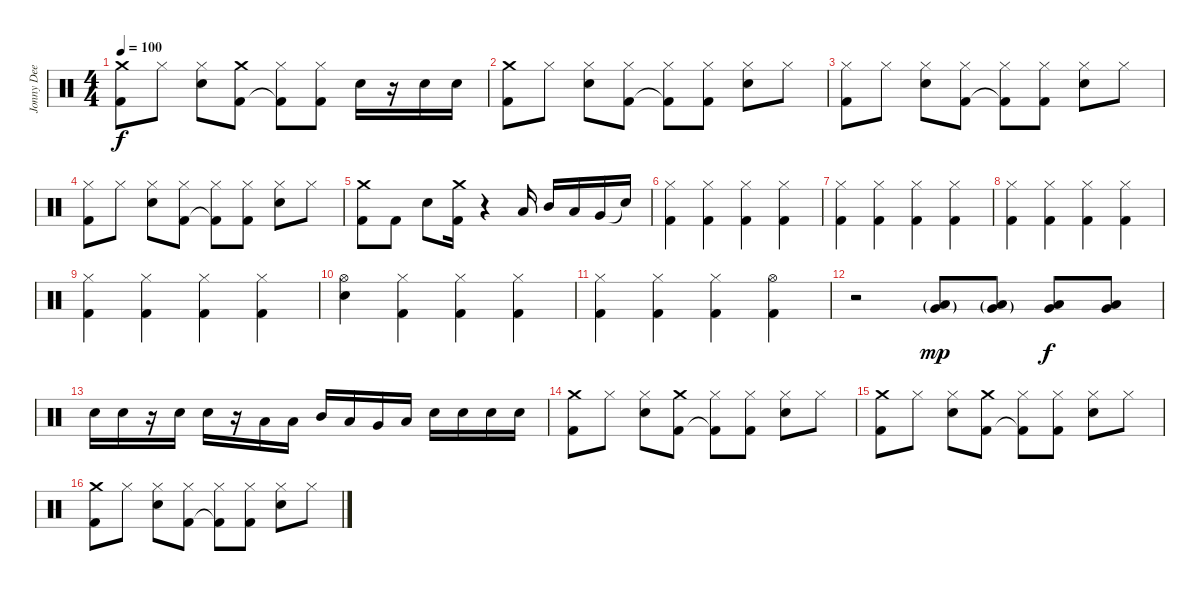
\track ("Jonny Dee" "Jonny Dee") {instrument percussion}
\staff {score}
\articulation defaults
\ts (4 4)
\tempo 100
\clef neutral
\ks c
("Crash medium (hit)" "Kick (hit) 2").8{dy f} "Hi-Hat (closed)".8 ("Hi-Hat (closed)" "Snare (hit) 2").8 ("Crash medium (hit)" "Kick (hit) 2").8 ("Hi-Hat (closed)" "Kick (hit) 2"{t}).8 ("Hi-Hat (closed)" "Kick (hit) 2").8 "Snare (hit) 2".16 r.16 "Snare (hit) 2".16 "Snare (hit) 2".16 |
("Crash medium (hit)" "Kick (hit) 2").8 "Hi-Hat (closed)".8 ("Hi-Hat (closed)" "Snare (hit) 2").8 ("Hi-Hat (closed)" "Kick (hit) 2").8 ("Hi-Hat (closed)" "Kick (hit) 2"{t}).8 ("Hi-Hat (closed)" "Kick (hit) 2").8 ("Hi-Hat (closed)" "Snare (hit) 2").8 "Hi-Hat (closed)".8 |
("Hi-Hat (closed)" "Kick (hit) 2").8 "Hi-Hat (closed)".8 ("Hi-Hat (closed)" "Snare (hit) 2").8 ("Hi-Hat (closed)" "Kick (hit) 2").8 ("Hi-Hat (closed)" "Kick (hit) 2"{t}).8 ("Hi-Hat (closed)" "Kick (hit) 2").8 ("Hi-Hat (closed)" "Snare (hit) 2").8 "Hi-Hat (closed)".8 |
("Hi-Hat (closed)" "Kick (hit) 2").8 "Hi-Hat (closed)".8 ("Hi-Hat (closed)" "Snare (hit) 2").8 ("Hi-Hat (closed)" "Kick (hit) 2").8 ("Hi-Hat (closed)" "Kick (hit) 2"{t}).8 ("Hi-Hat (closed)" "Kick (hit) 2").8 ("Hi-Hat (closed)" "Snare (hit) 2").8 "Hi-Hat (closed)".8 |
("Crash medium (hit)" "Kick (hit) 2").8 "Kick (hit) 2".8 "Snare (hit) 2".8 ("Crash medium (hit)" "Kick (hit) 2").16 r.4 "Low Tom (hit)".16 "Mid Tom (hit)".16 "Low Tom (hit)".16 "Very Low Tom (hit)".16 "Snare (hit)"{t}.16 |
("Hi-Hat (closed)" "Kick (hit) 2").4 ("Hi-Hat (closed)" "Kick (hit) 2").4 ("Hi-Hat (closed)" "Kick (hit) 2").4 ("Hi-Hat (closed)" "Kick (hit) 2").4 |
("Hi-Hat (closed)" "Kick (hit) 2").4 ("Hi-Hat (closed)" "Kick (hit) 2").4 ("Hi-Hat (closed)" "Kick (hit) 2").4 ("Hi-Hat (closed)" "Kick (hit) 2").4 |
("Hi-Hat (closed)" "Kick (hit) 2").4 ("Hi-Hat (closed)" "Kick (hit) 2").4 ("Hi-Hat (closed)" "Kick (hit) 2").4 ("Hi-Hat (closed)" "Kick (hit) 2").4 |
("Hi-Hat (closed)" "Kick (hit) 2").4 ("Hi-Hat (closed)" "Kick (hit) 2").4 ("Hi-Hat (closed)" "Kick (hit) 2").4 ("Hi-Hat (closed)" "Kick (hit) 2").4 |
("Hi-Hat (open)" "Snare (hit) 2").4 ("Hi-Hat (closed)" "Kick (hit) 2").4 ("Hi-Hat (closed)" "Kick (hit) 2").4 ("Hi-Hat (closed)" "Kick (hit) 2").4 |
("Hi-Hat (closed)" "Kick (hit) 2").4 ("Hi-Hat (closed)" "Kick (hit) 2").4 ("Hi-Hat (closed)" "Kick (hit) 2").4 ("Hi-Hat (open)" "Kick (hit) 2").4 |
r.2 ("Low Tom (hit)"{g} "Very Low Tom (hit)"{g}).8{dy mp} ("Low Tom (hit)"{g} "Very Low Tom (hit)"{g}).8 ("Low Tom (hit)" "Very Low Tom (hit)").8{dy f} ("Low Tom (hit)" "Very Low Tom (hit)").8 |
"Snare (hit) 2".16 "Snare (hit) 2".16 r.16 "Snare (hit) 2".16 "Snare (hit) 2".16 r.16 "Low Tom (hit)".16 "Low Tom (hit)".16 "Mid Tom (hit)".16 "Low Tom (hit)".16 "Very Low Tom (hit)".16 "Low Tom (hit)".16 "Snare (hit) 2".16 "Snare (hit) 2".16 "Snare (hit) 2".16 "Snare (hit) 2".16 |
("Crash medium (hit)" "Kick (hit) 2").8 "Hi-Hat (closed)".8 ("Hi-Hat (closed)" "Snare (hit) 2").8 ("Crash medium (hit)" "Kick (hit) 2").8 ("Hi-Hat (closed)" "Kick (hit) 2"{t}).8 ("Hi-Hat (closed)" "Kick (hit) 2").8 ("Hi-Hat (closed)" "Snare (hit) 2").8 "Hi-Hat (closed)".8 |
("Crash medium (hit)" "Kick (hit) 2").8 "Hi-Hat (closed)".8 ("Hi-Hat (closed)" "Snare (hit) 2").8 ("Crash medium (hit)" "Kick (hit) 2").8 ("Hi-Hat (closed)" "Kick (hit) 2"{t}).8 ("Hi-Hat (closed)" "Kick (hit) 2").8 ("Hi-Hat (closed)" "Snare (hit) 2").8 "Hi-Hat (closed)".8 |
("Crash medium (hit)" "Kick (hit) 2").8 "Hi-Hat (closed)".8 ("Hi-Hat (closed)" "Snare (hit) 2").8 ("Hi-Hat (closed)" "Kick (hit) 2").8 ("Hi-Hat (closed)" "Kick (hit) 2"{t}).8 ("Hi-Hat (closed)" "Kick (hit) 2").8 ("Hi-Hat (closed)" "Snare (hit) 2").8 "Hi-Hat (closed)".8
